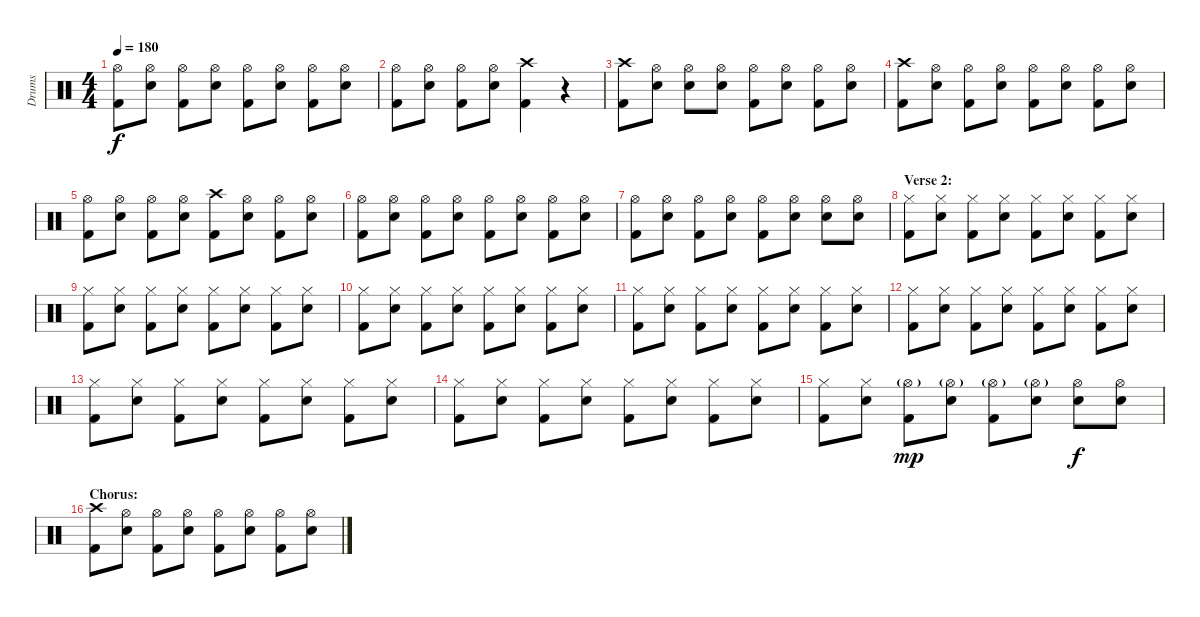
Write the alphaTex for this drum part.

\track ("Drums" "Drums") {instrument percussion}
\staff {score}
\articulation defaults
\ts (4 4)
\tempo 180
\clef neutral
\ks c
("Hi-Hat (open)" "Kick (hit) 2").8{dy f} ("Hi-Hat (open)" "Electric Snare (hit)").8 ("Hi-Hat (open)" "Kick (hit) 2").8 ("Hi-Hat (open)" "Electric Snare (hit)").8 ("Hi-Hat (open)" "Kick (hit) 2").8 ("Hi-Hat (open)" "Electric Snare (hit)").8 ("Hi-Hat (open)" "Kick (hit) 2").8 ("Hi-Hat (open)" "Electric Snare (hit)").8 |
("Hi-Hat (open)" "Kick (hit) 2").8 ("Hi-Hat (open)" "Electric Snare (hit)").8 ("Hi-Hat (open)" "Kick (hit) 2").8 ("Hi-Hat (open)" "Electric Snare (hit)").8 ("Crash high (hit)" "Kick (hit) 2").4 r.4 |
("Crash high (hit)" "Kick (hit) 2").8 ("Hi-Hat (open)" "Electric Snare (hit)").8 ("Hi-Hat (open)" "Electric Snare (hit)").8 ("Hi-Hat (open)" "Electric Snare (hit)").8 ("Hi-Hat (open)" "Kick (hit) 2").8 ("Hi-Hat (open)" "Electric Snare (hit)").8 ("Hi-Hat (open)" "Kick (hit) 2").8 ("Hi-Hat (open)" "Electric Snare (hit)").8 |
("Crash high (hit)" "Kick (hit) 2").8 ("Hi-Hat (open)" "Electric Snare (hit)").8 ("Hi-Hat (open)" "Kick (hit) 2").8 ("Hi-Hat (open)" "Electric Snare (hit)").8 ("Hi-Hat (open)" "Kick (hit) 2").8 ("Hi-Hat (open)" "Electric Snare (hit)").8 ("Hi-Hat (open)" "Kick (hit) 2").8 ("Hi-Hat (open)" "Electric Snare (hit)").8 |
("Hi-Hat (open)" "Kick (hit) 2").8 ("Hi-Hat (open)" "Electric Snare (hit)").8 ("Hi-Hat (open)" "Kick (hit) 2").8 ("Hi-Hat (open)" "Electric Snare (hit)").8 ("Crash high (hit)" "Kick (hit) 2").8 ("Hi-Hat (open)" "Electric Snare (hit)").8 ("Hi-Hat (open)" "Kick (hit) 2").8 ("Hi-Hat (open)" "Electric Snare (hit)").8 |
("Hi-Hat (open)" "Kick (hit) 2").8 ("Hi-Hat (open)" "Electric Snare (hit)").8 ("Hi-Hat (open)" "Kick (hit) 2").8 ("Hi-Hat (open)" "Electric Snare (hit)").8 ("Hi-Hat (open)" "Kick (hit) 2").8 ("Hi-Hat (open)" "Electric Snare (hit)").8 ("Hi-Hat (open)" "Kick (hit) 2").8 ("Hi-Hat (open)" "Electric Snare (hit)").8 |
("Hi-Hat (open)" "Kick (hit) 2").8 ("Hi-Hat (open)" "Electric Snare (hit)").8 ("Hi-Hat (open)" "Kick (hit) 2").8 ("Hi-Hat (open)" "Electric Snare (hit)").8 ("Hi-Hat (open)" "Kick (hit) 2").8 ("Hi-Hat (open)" "Electric Snare (hit)").8 ("Hi-Hat (open)" "Electric Snare (hit)").8 ("Hi-Hat (open)" "Electric Snare (hit)").8 |
\section ("" "Verse 2:")
("Hi-Hat (closed)" "Kick (hit) 2").8 ("Hi-Hat (closed)" "Electric Snare (hit)").8 ("Hi-Hat (closed)" "Kick (hit) 2").8 ("Hi-Hat (closed)" "Electric Snare (hit)").8 ("Hi-Hat (closed)" "Kick (hit) 2").8 ("Hi-Hat (closed)" "Electric Snare (hit)").8 ("Hi-Hat (closed)" "Kick (hit) 2").8 ("Hi-Hat (closed)" "Electric Snare (hit)").8 |
("Hi-Hat (closed)" "Kick (hit) 2").8 ("Hi-Hat (closed)" "Electric Snare (hit)").8 ("Hi-Hat (closed)" "Kick (hit) 2").8 ("Hi-Hat (closed)" "Electric Snare (hit)").8 ("Hi-Hat (closed)" "Kick (hit) 2").8 ("Hi-Hat (closed)" "Electric Snare (hit)").8 ("Hi-Hat (closed)" "Kick (hit) 2").8 ("Hi-Hat (closed)" "Electric Snare (hit)").8 |
("Hi-Hat (closed)" "Kick (hit) 2").8 ("Hi-Hat (closed)" "Electric Snare (hit)").8 ("Hi-Hat (closed)" "Kick (hit) 2").8 ("Hi-Hat (closed)" "Electric Snare (hit)").8 ("Hi-Hat (closed)" "Kick (hit) 2").8 ("Hi-Hat (closed)" "Electric Snare (hit)").8 ("Hi-Hat (closed)" "Kick (hit) 2").8 ("Hi-Hat (closed)" "Electric Snare (hit)").8 |
("Hi-Hat (closed)" "Kick (hit) 2").8 ("Hi-Hat (closed)" "Electric Snare (hit)").8 ("Hi-Hat (closed)" "Kick (hit) 2").8 ("Hi-Hat (closed)" "Electric Snare (hit)").8 ("Hi-Hat (closed)" "Kick (hit) 2").8 ("Hi-Hat (closed)" "Electric Snare (hit)").8 ("Hi-Hat (closed)" "Kick (hit) 2").8 ("Hi-Hat (closed)" "Electric Snare (hit)").8 |
("Hi-Hat (closed)" "Kick (hit) 2").8 ("Hi-Hat (closed)" "Electric Snare (hit)").8 ("Hi-Hat (closed)" "Kick (hit) 2").8 ("Hi-Hat (closed)" "Electric Snare (hit)").8 ("Hi-Hat (closed)" "Kick (hit) 2").8 ("Hi-Hat (closed)" "Electric Snare (hit)").8 ("Hi-Hat (closed)" "Kick (hit) 2").8 ("Hi-Hat (closed)" "Electric Snare (hit)").8 |
("Hi-Hat (closed)" "Kick (hit) 2").8 ("Hi-Hat (closed)" "Electric Snare (hit)").8 ("Hi-Hat (closed)" "Kick (hit) 2").8 ("Hi-Hat (closed)" "Electric Snare (hit)").8 ("Hi-Hat (closed)" "Kick (hit) 2").8 ("Hi-Hat (closed)" "Electric Snare (hit)").8 ("Hi-Hat (closed)" "Kick (hit) 2").8 ("Hi-Hat (closed)" "Electric Snare (hit)").8 |
("Hi-Hat (closed)" "Kick (hit) 2").8 ("Hi-Hat (closed)" "Electric Snare (hit)").8 ("Hi-Hat (closed)" "Kick (hit) 2").8 ("Hi-Hat (closed)" "Electric Snare (hit)").8 ("Hi-Hat (closed)" "Kick (hit) 2").8 ("Hi-Hat (closed)" "Electric Snare (hit)").8 ("Hi-Hat (closed)" "Kick (hit) 2").8 ("Hi-Hat (closed)" "Electric Snare (hit)").8 |
("Hi-Hat (closed)" "Kick (hit) 2").8 ("Hi-Hat (closed)" "Electric Snare (hit)").8 ("Hi-Hat (open)"{g} "Kick (hit) 2").8{dy mp} ("Hi-Hat (open)"{g} "Electric Snare (hit)").8 ("Hi-Hat (open)"{g} "Kick (hit) 2").8 ("Hi-Hat (open)"{g} "Electric Snare (hit)").8 ("Hi-Hat (open)" "Electric Snare (hit)").8{dy f} ("Hi-Hat (open)" "Electric Snare (hit)").8 |
\section ("" "Chorus:")
("Crash high (hit)" "Kick (hit) 2").8 ("Hi-Hat (open)" "Electric Snare (hit)").8 ("Hi-Hat (open)" "Kick (hit) 2").8 ("Hi-Hat (open)" "Electric Snare (hit)").8 ("Hi-Hat (open)" "Kick (hit) 2").8 ("Hi-Hat (open)" "Electric Snare (hit)").8 ("Hi-Hat (open)" "Kick (hit) 2").8 ("Hi-Hat (open)" "Electric Snare (hit)").8
